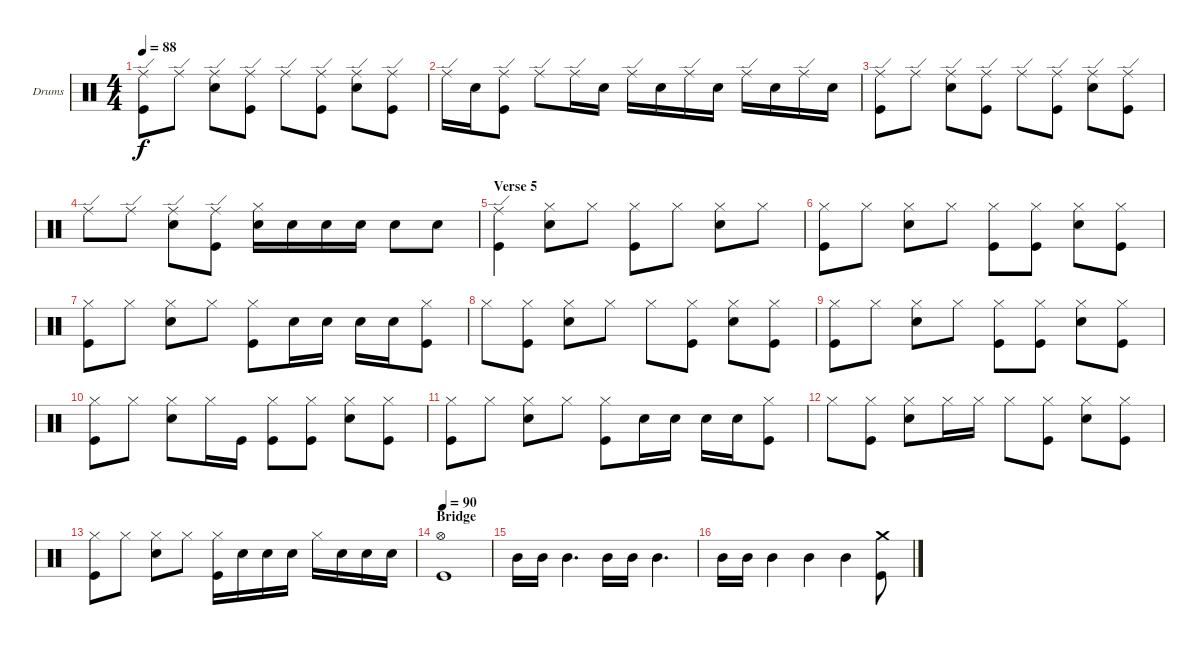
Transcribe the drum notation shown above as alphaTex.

\defaultSystemsLayout 4
\bracketExtendMode groupsimilarinstruments
\firstSystemTrackNameOrientation horizontal
\otherSystemsTrackNameOrientation horizontal
\track ("Drumkit (Bonham)" "Drums") {instrument percussion}
\staff {score}
\articulation defaults
\ts (4 4)
\tempo 88
\clef neutral
\scale
0.333333
\ks c
("Ride (edge)" "Kick (hit)").8{dy f} "Ride (edge)".8 ("Ride (edge)" "Snare (hit) 2").8 ("Ride (edge)" "Kick (hit)").8 "Ride (edge)".8 ("Ride (edge)" "Kick (hit)").8 ("Ride (edge)" "Snare (hit) 2").8 ("Ride (edge)" "Kick (hit)").8 |
\scale
0.333333 "Ride (edge)".16 "Snare (hit) 2".16 ("Ride (edge)" "Kick (hit)").8 "Ride (edge)".8 "Ride (edge)".16 "Snare (hit) 2".16 "Ride (edge)".16 "Snare (hit) 2".16 "Ride (edge)".16 "Snare (hit) 2".16 "Ride (edge)".16 "Snare (hit) 2".16 "Ride (edge)".16 "Snare (hit) 2".16 |
\scale
0.333333 ("Ride (edge)" "Kick (hit)").8 "Ride (edge)".8 ("Ride (edge)" "Snare (hit) 2").8 ("Ride (edge)" "Kick (hit)").8 "Ride (edge)".8 ("Ride (edge)" "Kick (hit)").8 ("Ride (edge)" "Snare (hit) 2").8 ("Ride (edge)" "Kick (hit)").8 |
\scale
0.333333 "Ride (edge)".8 "Ride (edge)".8 ("Ride (edge)" "Snare (hit) 2").8 ("Ride (edge)" "Kick (hit)").8 ("Hi-Hat (closed)" "Snare (hit) 2").16 "Snare (hit) 2".16 "Snare (hit) 2".16 "Snare (hit) 2".16 "Snare (hit) 2".8 "Snare (hit) 2".8 |
\section ("" "Verse 5")
\scale
0.333333 ("Ride (edge)" "Kick (hit)").4 ("Hi-Hat (closed)" "Snare (hit) 2").8 "Hi-Hat (closed)".8 ("Hi-Hat (closed)" "Kick (hit)").8 "Hi-Hat (closed)".8 ("Hi-Hat (closed)" "Snare (hit) 2").8 "Hi-Hat (closed)".8 |
\scale
0.333333 ("Hi-Hat (closed)" "Kick (hit)").8 "Hi-Hat (closed)".8 ("Hi-Hat (closed)" "Snare (hit) 2").8 "Hi-Hat (closed)".8 ("Hi-Hat (closed)" "Kick (hit)").8 ("Hi-Hat (closed)" "Kick (hit)").8 ("Hi-Hat (closed)" "Snare (hit) 2").8 ("Hi-Hat (closed)" "Kick (hit)").8 |
\scale
0.333333 ("Hi-Hat (closed)" "Kick (hit)").8 "Hi-Hat (closed)".8 ("Hi-Hat (closed)" "Snare (hit) 2").8 "Hi-Hat (closed)".8 ("Hi-Hat (closed)" "Kick (hit)").8 "Snare (hit) 2".16 "Snare (hit) 2".16 "Snare (hit) 2".16 "Snare (hit) 2".16 ("Hi-Hat (closed)" "Kick (hit)").8 |
\scale
0.333333 "Hi-Hat (closed)".8 ("Hi-Hat (closed)" "Kick (hit)").8 ("Hi-Hat (closed)" "Snare (hit) 2").8 "Hi-Hat (closed)".8 "Hi-Hat (closed)".8 ("Hi-Hat (closed)" "Kick (hit)").8 ("Hi-Hat (closed)" "Snare (hit) 2").8 ("Hi-Hat (closed)" "Kick (hit)").8 |
\scale
0.333333 ("Hi-Hat (closed)" "Kick (hit)").8 "Hi-Hat (closed)".8 ("Hi-Hat (closed)" "Snare (hit) 2").8 "Hi-Hat (closed)".8 ("Hi-Hat (closed)" "Kick (hit)").8 ("Hi-Hat (closed)" "Kick (hit)").8 ("Hi-Hat (closed)" "Snare (hit) 2").8 ("Hi-Hat (closed)" "Kick (hit)").8 |
\scale
0.333333 ("Hi-Hat (closed)" "Kick (hit)").8 "Hi-Hat (closed)".8 ("Hi-Hat (closed)" "Snare (hit) 2").8 "Hi-Hat (closed)".16 "Kick (hit)".16 ("Hi-Hat (closed)" "Kick (hit)").8 ("Hi-Hat (closed)" "Kick (hit)").8 ("Hi-Hat (closed)" "Snare (hit) 2").8 ("Hi-Hat (closed)" "Kick (hit)").8 |
\scale
0.333333 ("Hi-Hat (closed)" "Kick (hit)").8 "Hi-Hat (closed)".8 ("Hi-Hat (closed)" "Snare (hit) 2").8 "Hi-Hat (closed)".8 ("Hi-Hat (closed)" "Kick (hit)").8 "Snare (hit) 2".16 "Snare (hit) 2".16 "Snare (hit) 2".16 "Snare (hit) 2".16 ("Hi-Hat (closed)" "Kick (hit)").8 |
\scale
0.333333 "Hi-Hat (closed)".8 ("Hi-Hat (closed)" "Kick (hit)").8 ("Hi-Hat (closed)" "Snare (hit) 2").8 "Hi-Hat (closed)".16 "Hi-Hat (closed)".16 "Hi-Hat (closed)".8 ("Hi-Hat (closed)" "Kick (hit)").8 ("Hi-Hat (closed)" "Snare (hit) 2").8 ("Hi-Hat (closed)" "Kick (hit)").8 |
\scale
0.333333 ("Hi-Hat (closed)" "Kick (hit)").8 "Hi-Hat (closed)".8 ("Hi-Hat (closed)" "Snare (hit) 2").8 "Hi-Hat (closed)".8 ("Hi-Hat (closed)" "Kick (hit)").16 "Snare (hit) 2".16 "Snare (hit) 2".16 "Snare (hit) 2".16 "Hi-Hat (closed)".16 "Snare (hit) 2".16 "Snare (hit) 2".16 "Snare (hit) 2".16 |
\section ("" "Bridge")
\tempo 90
\scale
0.333333 ("Hi-Hat (open)" "Kick (hit)").1 |
\scale
0.333333 "Mid Tom (hit)".16 "Mid Tom (hit)".16 "Mid Tom (hit)".4{d} "Mid Tom (hit)".16 "Mid Tom (hit)".16 "Mid Tom (hit)".4{d} |
\scale
0.333333 "Mid Tom (hit)".16 "Mid Tom (hit)".16 "Mid Tom (hit)".4 "Mid Tom (hit)".4 "Mid Tom (hit)".4 ("Kick (hit)" "Crash medium (hit)").8
